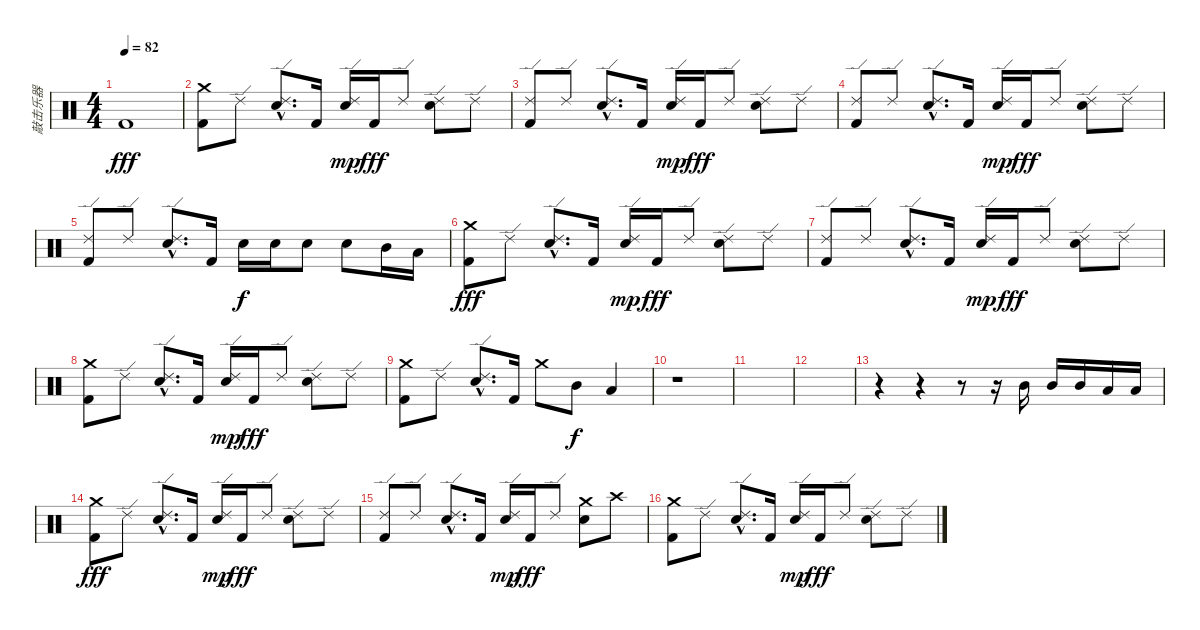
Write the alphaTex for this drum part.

\track ("敲击乐器" "敲击乐器") {instrument percussion}
\staff {score}
\articulation defaults
\ts (4 4)
\tempo 82
\clef neutral
\ks c "Kick (hit) 2".1{dy fff}
|
("Crash medium (hit)" "Kick (hit) 2").8 "Ride (edge) 2".8 ("Ride (edge) 2"{hac} "Snare (hit) 2"{hac}).8{d} "Kick (hit) 2".16 ("Ride (edge) 2" "Snare (hit) 2").16{dy mp} "Kick (hit) 2".16{dy fff} "Ride (edge) 2".8 ("Ride (edge) 2" "Snare (hit) 2").8 "Ride (edge) 2".8 |
("Ride (edge) 2" "Kick (hit) 2").8 "Ride (edge) 2".8 ("Ride (edge) 2"{hac} "Snare (hit) 2"{hac}).8{d} "Kick (hit) 2".16 ("Ride (edge) 2" "Snare (hit) 2").16{dy mp} "Kick (hit) 2".16{dy fff} "Ride (edge) 2".8 ("Ride (edge) 2" "Snare (hit) 2").8 "Ride (edge) 2".8 |
("Ride (edge) 2" "Kick (hit) 2").8 "Ride (edge) 2".8 ("Ride (edge) 2"{hac} "Snare (hit) 2"{hac}).8{d} "Kick (hit) 2".16 ("Ride (edge) 2" "Snare (hit) 2").16{dy mp} "Kick (hit) 2".16{dy fff} "Ride (edge) 2".8 ("Ride (edge) 2" "Snare (hit) 2").8 "Ride (edge) 2".8 |
("Ride (edge) 2" "Kick (hit) 2").8 "Ride (edge) 2".8 ("Ride (edge) 2"{hac} "Snare (hit) 2"{hac}).8{d} "Kick (hit) 2".16 "Snare (hit) 2".16{dy f} "Snare (hit) 2".16 "Snare (hit) 2".8 "Snare (hit) 2".8 "Mid Tom (hit)".16 "Low Tom (hit)".16 |
("Crash medium (hit)" "Kick (hit) 2").8{dy fff} "Ride (edge) 2".8 ("Ride (edge) 2"{hac} "Snare (hit) 2"{hac}).8{d} "Kick (hit) 2".16 ("Ride (edge) 2" "Snare (hit) 2").16{dy mp} "Kick (hit) 2".16{dy fff} "Ride (edge) 2".8 ("Ride (edge) 2" "Snare (hit) 2").8 "Ride (edge) 2".8 |
("Ride (edge) 2" "Kick (hit) 2").8 "Ride (edge) 2".8 ("Ride (edge) 2"{hac} "Snare (hit) 2"{hac}).8{d} "Kick (hit) 2".16 ("Ride (edge) 2" "Snare (hit) 2").16{dy mp} "Kick (hit) 2".16{dy fff} "Ride (edge) 2".8 ("Ride (edge) 2" "Snare (hit) 2").8 "Ride (edge) 2".8 |
("Crash medium (hit)" "Kick (hit) 2").8 "Ride (edge) 2".8 ("Ride (edge) 2"{hac} "Snare (hit) 2"{hac}).8{d} "Kick (hit) 2".16 ("Ride (edge) 2" "Snare (hit) 2").16{dy mp} "Kick (hit) 2".16{dy fff} "Ride (edge) 2".8 ("Ride (edge) 2" "Snare (hit) 2").8 "Ride (edge) 2".8 |
("Crash medium (hit)" "Kick (hit) 2").8 "Ride (edge) 2".8 ("Ride (edge) 2"{hac} "Snare (hit) 2"{hac}).8{d} "Kick (hit) 2".16 "Crash medium (hit)".8 "Mid Tom (hit)".8{dy f} "Low Tom (hit)".4 |
r.1 |
|
|
r.4 r.4 r.8 r.16 "Mid Tom (hit)".16 "Mid Tom (hit)".16 "Mid Tom (hit)".16 "Low Tom (hit)".16 "Low Tom (hit)".16 |
("Crash medium (hit)" "Kick (hit) 2").8{dy fff} "Ride (edge) 2".8 ("Ride (edge) 2"{hac} "Snare (hit) 2"{hac}).8{d} "Kick (hit) 2".16 ("Ride (edge) 2" "Snare (hit) 2").16{dy mp} "Kick (hit) 2".16{dy fff} "Ride (edge) 2".8 ("Ride (edge) 2" "Snare (hit) 2").8 "Ride (edge) 2".8 |
("Ride (edge) 2" "Kick (hit) 2").8 "Ride (edge) 2".8 ("Ride (edge) 2"{hac} "Snare (hit) 2"{hac}).8{d} "Kick (hit) 2".16 ("Ride (edge) 2" "Snare (hit) 2").16{dy mp} "Kick (hit) 2".16{dy fff} "Ride (edge) 2".8 ("Crash medium (hit)" "Snare (hit) 2").8 "Crash high (hit)".8 |
("Crash medium (hit)" "Kick (hit) 2").8 "Ride (edge) 2".8 ("Ride (edge) 2"{hac} "Snare (hit) 2"{hac}).8{d} "Kick (hit) 2".16 ("Ride (edge) 2" "Snare (hit) 2").16{dy mp} "Kick (hit) 2".16{dy fff} "Ride (edge) 2".8 ("Ride (edge) 2" "Snare (hit) 2").8 "Ride (edge) 2".8
